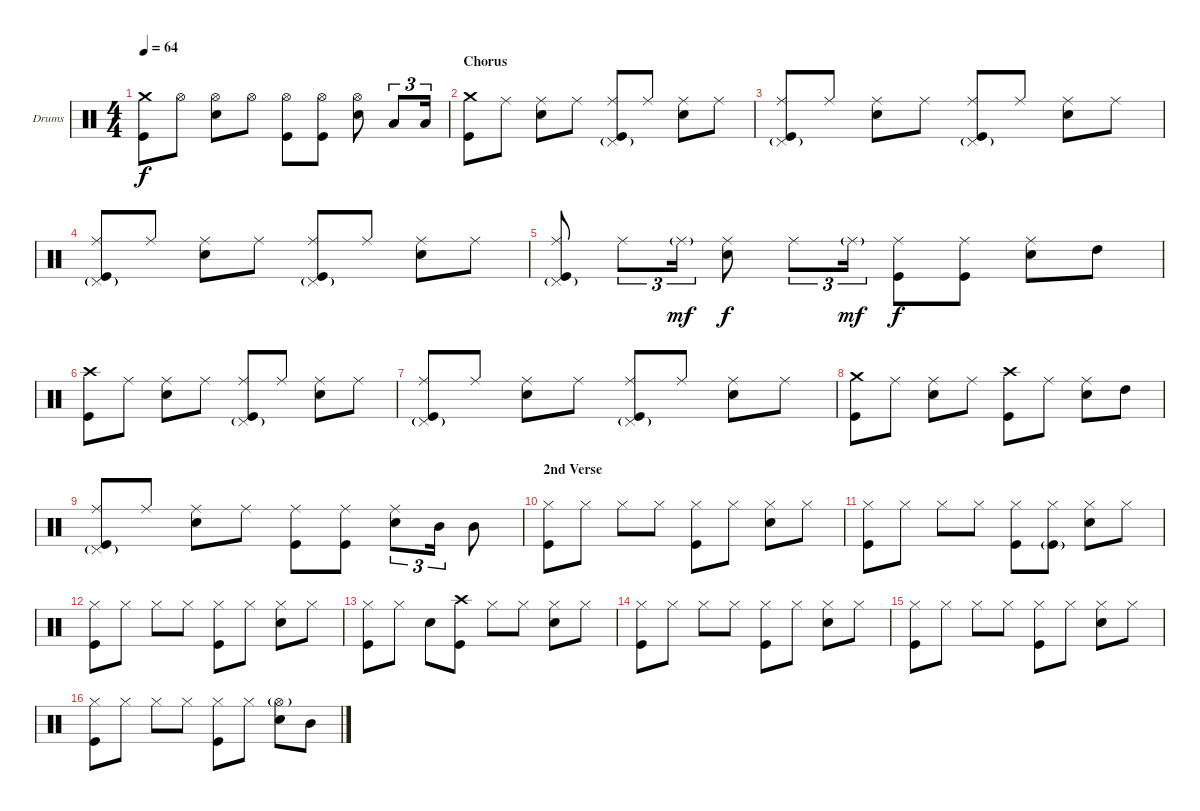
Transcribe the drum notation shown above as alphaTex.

\bracketExtendMode groupsimilarinstruments
\firstSystemTrackNameOrientation horizontal
\otherSystemsTrackNameOrientation horizontal
\track ("Drumkit" "Drums") {instrument percussion}
\staff {score}
\articulation defaults
\ts (4 4)
\tempo 64
\clef neutral
\ks c
("Crash medium (hit)" "Kick (hit)").8{dy f} "Hi-Hat (open)".8 ("Hi-Hat (open)" "Snare (hit) 2").8 "Hi-Hat (open)".8 ("Hi-Hat (open)" "Kick (hit)").8 ("Hi-Hat (open)" "Kick (hit)").8 ("Hi-Hat (open)" "Snare (hit) 2").8 "Low Tom (hit)".8{tu (3 2)} "Low Tom (hit)".16{tu (3 2)} |
\section ("" "Chorus")
("Crash medium (hit)" "Kick (hit)").8 "Ride (middle)".8 ("Ride (middle)" "Snare (hit) 2").8 "Ride (middle)".8 ("Ride (middle)" "Pedal Hi-Hat (hit)"{g} "Kick (hit)").8 "Ride (middle)".8 ("Ride (middle)" "Snare (hit) 2").8 "Ride (middle)".8 |
("Ride (middle)" "Pedal Hi-Hat (hit)"{g} "Kick (hit)").8 "Ride (middle)".8 ("Ride (middle)" "Snare (hit) 2").8 "Ride (middle)".8 ("Ride (middle)" "Pedal Hi-Hat (hit)"{g} "Kick (hit)").8 "Ride (middle)".8 ("Ride (middle)" "Snare (hit) 2").8 "Ride (middle)".8 |
("Ride (middle)" "Pedal Hi-Hat (hit)"{g} "Kick (hit)").8 "Ride (middle)".8 ("Ride (middle)" "Snare (hit) 2").8 "Ride (middle)".8 ("Ride (middle)" "Pedal Hi-Hat (hit)"{g} "Kick (hit)").8 "Ride (middle)".8 ("Ride (middle)" "Snare (hit) 2").8 "Ride (middle)".8 |
("Ride (middle)" "Pedal Hi-Hat (hit)"{g} "Kick (hit)").8 "Ride (middle)".8{tu (3 2)} "Ride (middle)"{g}.16{tu (3 2) dy mf} ("Ride (middle)" "Snare (hit) 2").8{dy f} "Ride (middle)".8{tu (3 2)} "Ride (middle)"{g}.16{tu (3 2) dy mf} ("Ride (middle)" "Kick (hit)").8{dy f} ("Ride (middle)" "Kick (hit)").8 ("Ride (middle)" "Snare (hit) 2").8 "High Tom (hit)".8 |
("Crash high (hit)" "Kick (hit)").8 "Ride (middle)".8 ("Ride (middle)" "Snare (hit) 2").8 "Ride (middle)".8 ("Ride (middle)" "Pedal Hi-Hat (hit)"{g} "Kick (hit)").8 "Ride (middle)".8 ("Ride (middle)" "Snare (hit) 2").8 "Ride (middle)".8 |
("Ride (middle)" "Pedal Hi-Hat (hit)"{g} "Kick (hit)").8 "Ride (middle)".8 ("Ride (middle)" "Snare (hit) 2").8 "Ride (middle)".8 ("Ride (middle)" "Pedal Hi-Hat (hit)"{g} "Kick (hit)").8 "Ride (middle)".8 ("Ride (middle)" "Snare (hit) 2").8 "Ride (middle)".8 |
("Crash medium (hit)" "Kick (hit)").8 "Ride (middle)".8 ("Ride (middle)" "Snare (hit) 2").8 "Ride (middle)".8 ("Crash high (hit)" "Kick (hit)").8 "Ride (middle)".8 ("Ride (middle)" "Snare (hit) 2").8 "High Tom (hit)".8 |
("Ride (middle)" "Pedal Hi-Hat (hit)"{g} "Kick (hit)").8 "Ride (middle)".8 ("Ride (middle)" "Snare (hit) 2").8 "Ride (middle)".8 ("Ride (middle)" "Kick (hit)").8 ("Ride (middle)" "Kick (hit)").8 ("Ride (middle)" "Snare (hit) 2").8{tu (3 2)} "Mid Tom (hit)".16{tu (3 2)} "Mid Tom (hit)".8 |
\section ("" "2nd Verse")
("Hi-Hat (closed)" "Kick (hit)").8 "Hi-Hat (closed)".8 "Hi-Hat (closed)".8 "Hi-Hat (closed)".8 ("Hi-Hat (closed)" "Kick (hit)").8 "Hi-Hat (closed)".8 ("Hi-Hat (closed)" "Snare (hit) 2").8 "Hi-Hat (closed)".8 |
("Hi-Hat (closed)" "Kick (hit)").8 "Hi-Hat (closed)".8 "Hi-Hat (closed)".8 "Hi-Hat (closed)".8 ("Hi-Hat (closed)" "Kick (hit)").8 ("Hi-Hat (closed)" "Kick (hit)"{g}).8 ("Hi-Hat (closed)" "Snare (hit) 2").8 "Hi-Hat (closed)".8 |
("Hi-Hat (closed)" "Kick (hit)").8 "Hi-Hat (closed)".8 "Hi-Hat (closed)".8 "Hi-Hat (closed)".8 ("Hi-Hat (closed)" "Kick (hit)").8 "Hi-Hat (closed)".8 ("Hi-Hat (closed)" "Snare (hit) 2").8 "Hi-Hat (closed)".8 |
("Hi-Hat (closed)" "Kick (hit)").8 "Hi-Hat (closed)".8 "Snare (hit) 2".8 ("Crash high (hit)" "Kick (hit)").8 "Hi-Hat (closed)".8 "Hi-Hat (closed)".8 ("Hi-Hat (closed)" "Snare (hit) 2").8 "Hi-Hat (closed)".8 |
("Hi-Hat (closed)" "Kick (hit)").8 "Hi-Hat (closed)".8 "Hi-Hat (closed)".8 "Hi-Hat (closed)".8 ("Hi-Hat (closed)" "Kick (hit)").8 "Hi-Hat (closed)".8 ("Hi-Hat (closed)" "Snare (hit) 2").8 "Hi-Hat (closed)".8 |
("Hi-Hat (closed)" "Kick (hit)").8 "Hi-Hat (closed)".8 "Hi-Hat (closed)".8 "Hi-Hat (closed)".8 ("Hi-Hat (closed)" "Kick (hit)").8 "Hi-Hat (closed)".8 ("Hi-Hat (closed)" "Snare (hit) 2").8 "Hi-Hat (closed)".8 |
("Hi-Hat (closed)" "Kick (hit)").8 "Hi-Hat (closed)".8 "Hi-Hat (closed)".8 "Hi-Hat (closed)".8 ("Hi-Hat (closed)" "Kick (hit)").8 "Hi-Hat (closed)".8 ("Hi-Hat (open)"{g} "Snare (hit) 2").8 "Mid Tom (hit)".8
